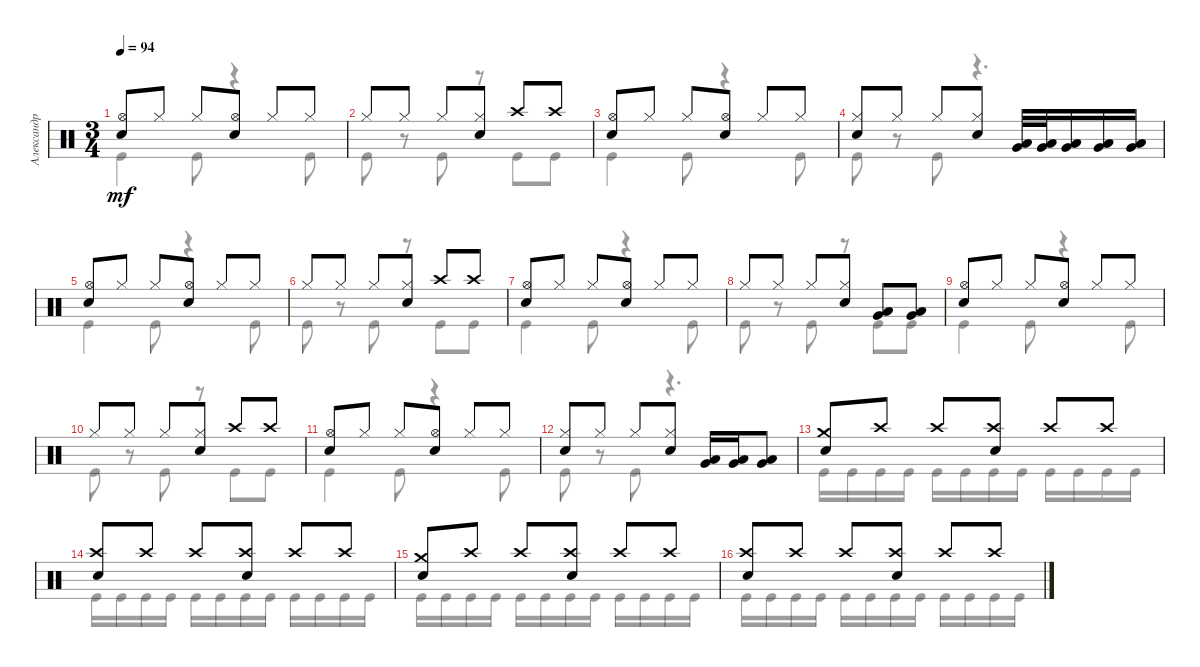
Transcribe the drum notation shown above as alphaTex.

\track ("Александр Манякин" "Александр ") {instrument percussion}
\staff {score}
\articulation defaults
\voice
\ts (3 4)
\tempo 94
\clef neutral
\ks c
("Snare (hit) 2" "Hi-Hat (open)").8{dy mf} "Hi-Hat (closed)".8 "Hi-Hat (closed)".8 ("Snare (hit) 2" "Hi-Hat (open)").8 "Hi-Hat (closed)".8 "Hi-Hat (closed)".8 |
"Hi-Hat (closed)".8 "Hi-Hat (closed)".8 "Hi-Hat (closed)".8 ("Hi-Hat (closed)" "Snare (hit) 2").8 "Crash high (hit)".8 "Crash high (hit)".8 |
("Snare (hit) 2" "Hi-Hat (open)").8 "Hi-Hat (closed)".8 "Hi-Hat (closed)".8 ("Snare (hit) 2" "Hi-Hat (open)").8 "Hi-Hat (closed)".8 "Hi-Hat (closed)".8 |
("Snare (hit) 2" "Hi-Hat (closed)").8 "Hi-Hat (closed)".8 "Hi-Hat (closed)".8 ("Hi-Hat (closed)" "Snare (hit) 2").8 ("Very Low Tom (hit)" "Low Tom (hit)").32 ("Very Low Tom (hit)" "Low Tom (hit)").32 ("Very Low Tom (hit)" "Low Tom (hit)").16 ("Very Low Tom (hit)" "Low Tom (hit)").16 ("Low Tom (hit)" "Very Low Tom (hit)").16 |
("Snare (hit) 2" "Hi-Hat (open)").8 "Hi-Hat (closed)".8 "Hi-Hat (closed)".8 ("Snare (hit) 2" "Hi-Hat (open)").8 "Hi-Hat (closed)".8 "Hi-Hat (closed)".8 |
"Hi-Hat (closed)".8 "Hi-Hat (closed)".8 "Hi-Hat (closed)".8 ("Hi-Hat (closed)" "Snare (hit) 2").8 "Crash high (hit)".8 "Crash high (hit)".8 |
("Snare (hit) 2" "Hi-Hat (open)").8 "Hi-Hat (closed)".8 "Hi-Hat (closed)".8 ("Snare (hit) 2" "Hi-Hat (open)").8 "Hi-Hat (closed)".8 "Hi-Hat (closed)".8 |
"Hi-Hat (closed)".8 "Hi-Hat (closed)".8 "Hi-Hat (closed)".8 ("Hi-Hat (closed)" "Snare (hit) 2").8 ("Low Tom (hit)" "Very Low Tom (hit)").8 ("Very Low Tom (hit)" "Low Tom (hit)").8 |
("Snare (hit) 2" "Hi-Hat (open)").8 "Hi-Hat (closed)".8 "Hi-Hat (closed)".8 ("Snare (hit) 2" "Hi-Hat (open)").8 "Hi-Hat (closed)".8 "Hi-Hat (closed)".8 |
"Hi-Hat (closed)".8 "Hi-Hat (closed)".8 "Hi-Hat (closed)".8 ("Hi-Hat (closed)" "Snare (hit) 2").8 "Crash high (hit)".8 "Crash high (hit)".8 |
("Snare (hit) 2" "Hi-Hat (open)").8 "Hi-Hat (closed)".8 "Hi-Hat (closed)".8 ("Snare (hit) 2" "Hi-Hat (open)").8 "Hi-Hat (closed)".8 "Hi-Hat (closed)".8 |
("Snare (hit) 2" "Hi-Hat (closed)").8 "Hi-Hat (closed)".8 "Hi-Hat (closed)".8 ("Hi-Hat (closed)" "Snare (hit) 2").8 ("Very Low Tom (hit)" "Low Tom (hit)").16 ("Very Low Tom (hit)" "Low Tom (hit)").16 ("Very Low Tom (hit)" "Low Tom (hit)").8 |
("Snare (hit) 2" "Crash medium (hit)").8 "Crash high (hit)".8 "Crash high (hit)".8 ("Snare (hit) 2" "Crash high (hit)").8 "Crash high (hit)".8 "Crash high (hit)".8 |
("Snare (hit) 2" "Crash high (hit)").8 "Crash high (hit)".8 "Crash high (hit)".8 ("Snare (hit) 2" "Crash high (hit)").8 "Crash high (hit)".8 "Crash high (hit)".8 |
("Snare (hit) 2" "Crash medium (hit)").8 "Crash high (hit)".8 "Crash high (hit)".8 ("Snare (hit) 2" "Crash high (hit)").8 "Crash high (hit)".8 "Crash high (hit)".8 |
("Snare (hit) 2" "Crash high (hit)").8 "Crash high (hit)".8 "Crash high (hit)".8 ("Snare (hit) 2" "Crash high (hit)").8 "Crash high (hit)".8 "Crash high (hit)".8
\voice
\clef neutral
\ottava regular
\simile none
\ks c "Kick (hit)".4{dy mf} "Kick (hit)".8
r.4 "Kick (hit)".8 |
"Kick (hit)".8 r.8 "Kick (hit)".8 r.8 "Kick (hit)".8 "Kick (hit)".8 |
"Kick (hit)".4 "Kick (hit)".8 r.4 "Kick (hit)".8 |
"Kick (hit)".8 r.8 "Kick (hit)".8 r.4{d} |
"Kick (hit)".4 "Kick (hit)".8 r.4 "Kick (hit)".8 |
"Kick (hit)".8 r.8 "Kick (hit)".8 r.8 "Kick (hit)".8 "Kick (hit)".8 |
"Kick (hit)".4 "Kick (hit)".8 r.4 "Kick (hit)".8 |
"Kick (hit)".8 r.8 "Kick (hit)".8 r.8 "Kick (hit)".8 "Kick (hit)".8 |
"Kick (hit)".4 "Kick (hit)".8 r.4 "Kick (hit)".8 |
"Kick (hit)".8 r.8 "Kick (hit)".8 r.8 "Kick (hit)".8 "Kick (hit)".8 |
"Kick (hit)".4 "Kick (hit)".8 r.4 "Kick (hit)".8 |
"Kick (hit)".8 r.8 "Kick (hit)".8 r.4{d} |
"Kick (hit)".16 "Kick (hit)".16 "Kick (hit)".16 "Kick (hit)".16 "Kick (hit)".16 "Kick (hit)".16 "Kick (hit)".16 "Kick (hit)".16 "Kick (hit)".16 "Kick (hit)".16 "Kick (hit)".16 "Kick (hit)".16 |
"Kick (hit)".16 "Kick (hit)".16 "Kick (hit)".16 "Kick (hit)".16 "Kick (hit)".16 "Kick (hit)".16 "Kick (hit)".16 "Kick (hit)".16 "Kick (hit)".16 "Kick (hit)".16 "Kick (hit)".16 "Kick (hit)".16 |
"Kick (hit)".16 "Kick (hit)".16 "Kick (hit)".16 "Kick (hit)".16 "Kick (hit)".16 "Kick (hit)".16 "Kick (hit)".16 "Kick (hit)".16 "Kick (hit)".16 "Kick (hit)".16 "Kick (hit)".16 "Kick (hit)".16 |
"Kick (hit)".16 "Kick (hit)".16 "Kick (hit)".16 "Kick (hit)".16 "Kick (hit)".16 "Kick (hit)".16 "Kick (hit)".16 "Kick (hit)".16 "Kick (hit)".16 "Kick (hit)".16 "Kick (hit)".16 "Kick (hit)".16
